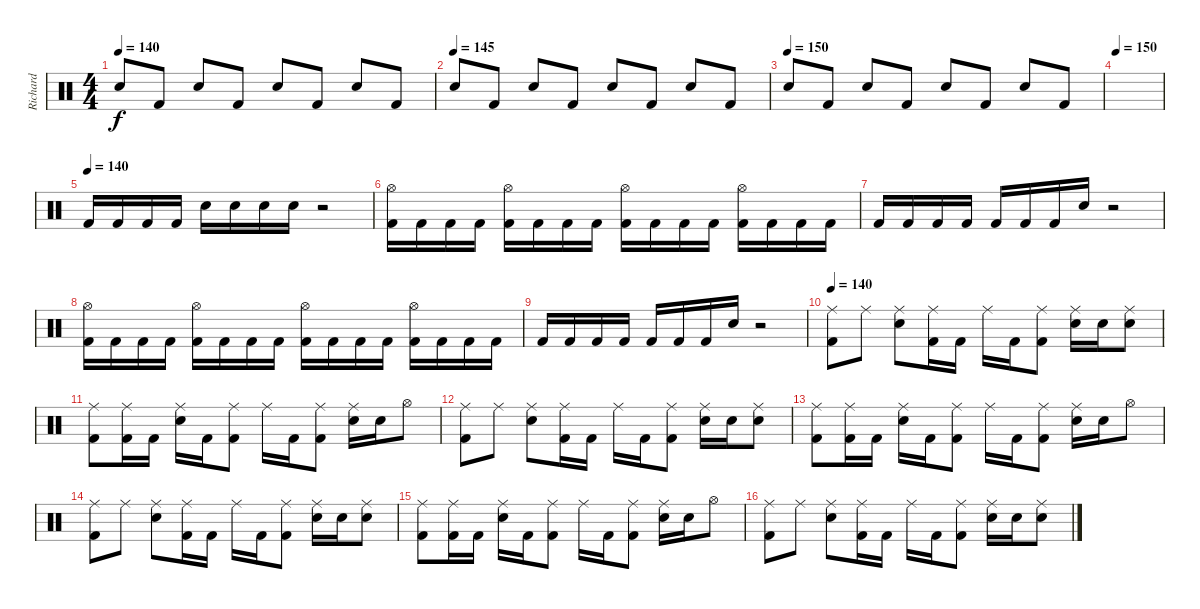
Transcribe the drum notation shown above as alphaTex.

\track ("Richard" "Richard") {instrument percussion}
\staff {score}
\articulation defaults
\ts (4 4)
\tempo 140
\clef neutral
\ks c "Snare (hit) 2".8{dy f} "Kick (hit) 2".8 "Snare (hit) 2".8 "Kick (hit) 2".8 "Snare (hit) 2".8 "Kick (hit) 2".8 "Snare (hit) 2".8 "Kick (hit) 2".8
|
\tempo (145)
"Snare (hit) 2".8 "Kick (hit) 2".8 "Snare (hit) 2".8 "Kick (hit) 2".8 "Snare (hit) 2".8 "Kick (hit) 2".8 "Snare (hit) 2".8 "Kick (hit) 2".8 |
\tempo (150)
"Snare (hit) 2".8 "Kick (hit) 2".8 "Snare (hit) 2".8 "Kick (hit) 2".8 "Snare (hit) 2".8 "Kick (hit) 2".8 "Snare (hit) 2".8 "Kick (hit) 2".8 |
\tempo 150
|
\tempo (140)
"Kick (hit) 2".16 "Kick (hit) 2".16 "Kick (hit) 2".16 "Kick (hit) 2".16 "Snare (hit) 2".16 "Snare (hit) 2".16 "Snare (hit) 2".16 "Snare (hit) 2".16 r.2 |
("Hi-Hat (open)" "Kick (hit) 2").16 "Kick (hit) 2".16 "Kick (hit) 2".16 "Kick (hit) 2".16 ("Hi-Hat (open)" "Kick (hit) 2").16 "Kick (hit) 2".16 "Kick (hit) 2".16 "Kick (hit) 2".16 ("Hi-Hat (open)" "Kick (hit) 2").16 "Kick (hit) 2".16 "Kick (hit) 2".16 "Kick (hit) 2".16 ("Hi-Hat (open)" "Kick (hit) 2").16 "Kick (hit) 2".16 "Kick (hit) 2".16 "Kick (hit) 2".16 |
"Kick (hit) 2".16 "Kick (hit) 2".16 "Kick (hit) 2".16 "Kick (hit) 2".16 "Kick (hit) 2".16 "Kick (hit) 2".16 "Kick (hit) 2".16 "Snare (hit) 2".16 r.2 |
("Hi-Hat (open)" "Kick (hit) 2").16 "Kick (hit) 2".16 "Kick (hit) 2".16 "Kick (hit) 2".16 ("Hi-Hat (open)" "Kick (hit) 2").16 "Kick (hit) 2".16 "Kick (hit) 2".16 "Kick (hit) 2".16 ("Hi-Hat (open)" "Kick (hit) 2").16 "Kick (hit) 2".16 "Kick (hit) 2".16 "Kick (hit) 2".16 ("Hi-Hat (open)" "Kick (hit) 2").16 "Kick (hit) 2".16 "Kick (hit) 2".16 "Kick (hit) 2".16 |
"Kick (hit) 2".16 "Kick (hit) 2".16 "Kick (hit) 2".16 "Kick (hit) 2".16 "Kick (hit) 2".16 "Kick (hit) 2".16 "Kick (hit) 2".16 "Snare (hit) 2".16 r.2 |
\tempo 140
("Ride (middle)" "Kick (hit) 2").8 "Ride (middle)".8 ("Ride (middle)" "Snare (hit) 2").8 ("Ride (middle)" "Kick (hit) 2").16 "Kick (hit) 2".16 "Ride (middle)".16 "Kick (hit) 2".16 ("Ride (middle)" "Kick (hit) 2").8 ("Ride (middle)" "Snare (hit) 2").16 "Snare (hit) 2".16 ("Ride (middle)" "Snare (hit) 2").8 |
("Ride (middle)" "Kick (hit) 2").8 ("Ride (middle)" "Kick (hit) 2").16 "Kick (hit) 2".16 ("Ride (middle)" "Snare (hit) 2").16 "Kick (hit) 2".16 ("Ride (middle)" "Kick (hit) 2").8 "Ride (middle)".16 "Kick (hit) 2".16 ("Ride (middle)" "Kick (hit) 2").8 ("Ride (middle)" "Snare (hit) 2").16 "Snare (hit) 2".16 "Hi-Hat (open)".8 |
("Ride (middle)" "Kick (hit) 2").8 "Ride (middle)".8 ("Ride (middle)" "Snare (hit) 2").8 ("Ride (middle)" "Kick (hit) 2").16 "Kick (hit) 2".16 "Ride (middle)".16 "Kick (hit) 2".16 ("Ride (middle)" "Kick (hit) 2").8 ("Ride (middle)" "Snare (hit) 2").16 "Snare (hit) 2".16 ("Ride (middle)" "Snare (hit) 2").8 |
("Ride (middle)" "Kick (hit) 2").8 ("Ride (middle)" "Kick (hit) 2").16 "Kick (hit) 2".16 ("Ride (middle)" "Snare (hit) 2").16 "Kick (hit) 2".16 ("Ride (middle)" "Kick (hit) 2").8 "Ride (middle)".16 "Kick (hit) 2".16 ("Ride (middle)" "Kick (hit) 2").8 ("Ride (middle)" "Snare (hit) 2").16 "Snare (hit) 2".16 "Hi-Hat (open)".8 |
("Ride (middle)" "Kick (hit) 2").8 "Ride (middle)".8 ("Ride (middle)" "Snare (hit) 2").8 ("Ride (middle)" "Kick (hit) 2").16 "Kick (hit) 2".16 "Ride (middle)".16 "Kick (hit) 2".16 ("Ride (middle)" "Kick (hit) 2").8 ("Ride (middle)" "Snare (hit) 2").16 "Snare (hit) 2".16 ("Ride (middle)" "Snare (hit) 2").8 |
("Ride (middle)" "Kick (hit) 2").8 ("Ride (middle)" "Kick (hit) 2").16 "Kick (hit) 2".16 ("Ride (middle)" "Snare (hit) 2").16 "Kick (hit) 2".16 ("Ride (middle)" "Kick (hit) 2").8 "Ride (middle)".16 "Kick (hit) 2".16 ("Ride (middle)" "Kick (hit) 2").8 ("Ride (middle)" "Snare (hit) 2").16 "Snare (hit) 2".16 "Hi-Hat (open)".8 |
("Ride (middle)" "Kick (hit) 2").8 "Ride (middle)".8 ("Ride (middle)" "Snare (hit) 2").8 ("Ride (middle)" "Kick (hit) 2").16 "Kick (hit) 2".16 "Ride (middle)".16 "Kick (hit) 2".16 ("Ride (middle)" "Kick (hit) 2").8 ("Ride (middle)" "Snare (hit) 2").16 "Snare (hit) 2".16 ("Ride (middle)" "Snare (hit) 2").8
